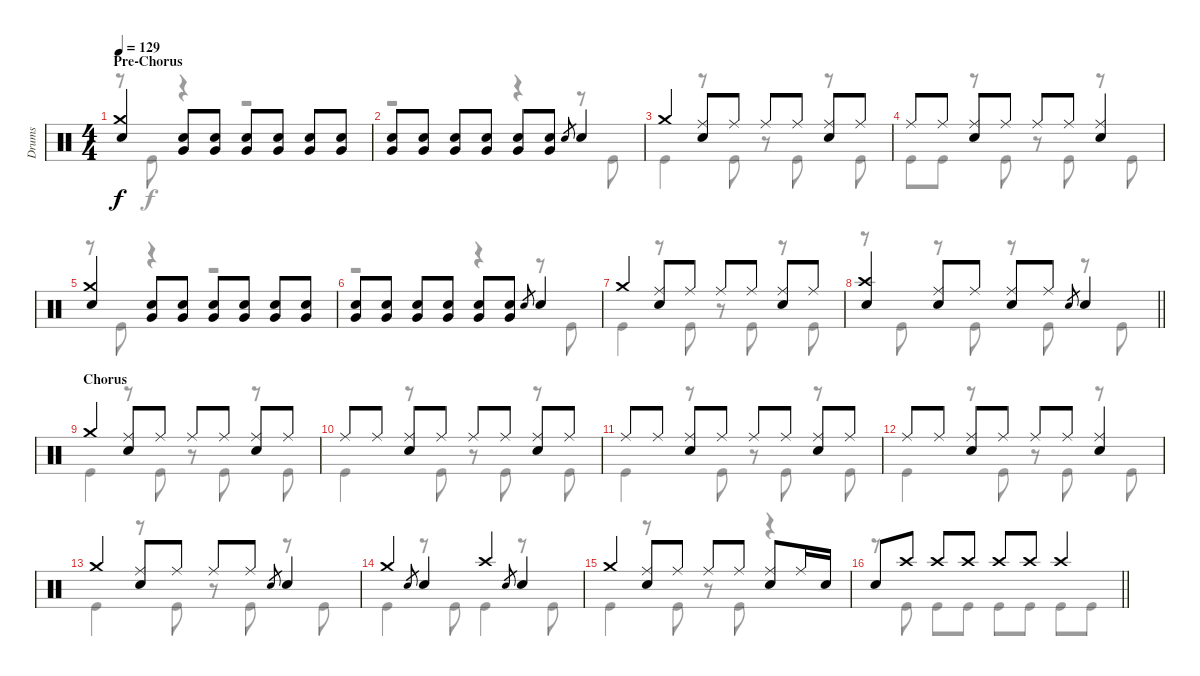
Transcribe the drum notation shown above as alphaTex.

\track ("Drums" "Drums") {instrument percussion}
\staff {score}
\articulation defaults
\voice
\ts (4 4)
\section ("" "Pre-Chorus")
\tempo 129
\clef neutral
\ks c
("Crash medium (hit)" "Electric Snare (hit)").4{dy f} ("Very Low Tom (hit)" "Electric Snare (hit)").8 ("Very Low Tom (hit)" "Electric Snare (hit)").8 ("Very Low Tom (hit)" "Electric Snare (hit)").8 ("Very Low Tom (hit)" "Electric Snare (hit)").8 ("Very Low Tom (hit)" "Electric Snare (hit)").8 ("Very Low Tom (hit)" "Electric Snare (hit)").8 |
("Very Low Tom (hit)" "Electric Snare (hit)").8 ("Very Low Tom (hit)" "Electric Snare (hit)").8 ("Very Low Tom (hit)" "Electric Snare (hit)").8 ("Very Low Tom (hit)" "Electric Snare (hit)").8 ("Very Low Tom (hit)" "Electric Snare (hit)").8 ("Very Low Tom (hit)" "Electric Snare (hit)").8 "Electric Snare (hit)".8{gr} "Electric Snare (hit)".4 |
"Crash medium (hit)".4 ("Ride (middle)" "Electric Snare (hit)").8 "Ride (middle)".8 "Ride (middle)".8 "Ride (middle)".8 ("Ride (middle)" "Electric Snare (hit)").8 "Ride (middle)".8 |
"Ride (middle)".8 "Ride (middle)".8 ("Ride (middle)" "Electric Snare (hit)").8 "Ride (middle)".8 "Ride (middle)".8 "Ride (middle)".8 ("Ride (middle)" "Electric Snare (hit)").4 |
("Crash medium (hit)" "Electric Snare (hit)").4 ("Very Low Tom (hit)" "Electric Snare (hit)").8 ("Very Low Tom (hit)" "Electric Snare (hit)").8 ("Very Low Tom (hit)" "Electric Snare (hit)").8 ("Very Low Tom (hit)" "Electric Snare (hit)").8 ("Very Low Tom (hit)" "Electric Snare (hit)").8 ("Very Low Tom (hit)" "Electric Snare (hit)").8 |
("Very Low Tom (hit)" "Electric Snare (hit)").8 ("Very Low Tom (hit)" "Electric Snare (hit)").8 ("Very Low Tom (hit)" "Electric Snare (hit)").8 ("Very Low Tom (hit)" "Electric Snare (hit)").8 ("Very Low Tom (hit)" "Electric Snare (hit)").8 ("Very Low Tom (hit)" "Electric Snare (hit)").8 "Electric Snare (hit)".8{gr} "Electric Snare (hit)".4 |
"Crash medium (hit)".4 ("Ride (middle)" "Electric Snare (hit)").8 "Ride (middle)".8 "Ride (middle)".8 "Ride (middle)".8 ("Ride (middle)" "Electric Snare (hit)").8 "Ride (middle)".8 |
\barLineRight lightlight
("Crash high (hit)" "Electric Snare (hit)").4 ("Ride (middle)" "Electric Snare (hit)").8 "Ride (middle)".8 ("Ride (middle)" "Electric Snare (hit)").8 "Ride (middle)".8 "Electric Snare (hit)".8{gr} "Electric Snare (hit)".4 |
\section ("" "Chorus")
"Crash medium (hit)".4 ("Ride (middle)" "Electric Snare (hit)").8 "Ride (middle)".8 "Ride (middle)".8 "Ride (middle)".8 ("Ride (middle)" "Electric Snare (hit)").8 "Ride (middle)".8 |
"Ride (middle)".8 "Ride (middle)".8 ("Ride (middle)" "Electric Snare (hit)").8 "Ride (middle)".8 "Ride (middle)".8 "Ride (middle)".8 ("Ride (middle)" "Electric Snare (hit)").8 "Ride (middle)".8 |
"Ride (middle)".8 "Ride (middle)".8 ("Ride (middle)" "Electric Snare (hit)").8 "Ride (middle)".8 "Ride (middle)".8 "Ride (middle)".8 ("Ride (middle)" "Electric Snare (hit)").8 "Ride (middle)".8 |
"Ride (middle)".8 "Ride (middle)".8 ("Ride (middle)" "Electric Snare (hit)").8 "Ride (middle)".8 "Ride (middle)".8 "Ride (middle)".8 ("Ride (middle)" "Electric Snare (hit)").4 |
"Crash medium (hit)".4 ("Ride (middle)" "Electric Snare (hit)").8 "Ride (middle)".8 "Ride (middle)".8 "Ride (middle)".8 "Electric Snare (hit)".8{gr} "Electric Snare (hit)".4 |
"Crash medium (hit)".4 "Electric Snare (hit)".8{gr} "Electric Snare (hit)".4 "Crash high (hit)".4 "Electric Snare (hit)".8{gr} "Electric Snare (hit)".4 |
"Crash medium (hit)".4 ("Ride (middle)" "Electric Snare (hit)").8 "Ride (middle)".8 "Ride (middle)".8 "Ride (middle)".8 ("Ride (middle)" "Electric Snare (hit)").8 "Ride (middle)".16 "Electric Snare (hit)".16 |
\barLineRight lightlight "Electric Snare (hit)".8 "Crash high (hit)".8 "Crash high (hit)".8 "Crash high (hit)".8 "Crash high (hit)".8 "Crash high (hit)".8 "Crash high (hit)".4
\voice
\clef neutral
\ottava regular
\simile none
\ks c
r.8{dy f} "Kick (hit)".8 r.4 r.2 |
r.2 r.4 r.8 "Kick (hit)".8 |
"Kick (hit)".4 r.8 "Kick (hit)".8 r.8 "Kick (hit)".8 r.8 "Kick (hit)".8 |
"Kick (hit)".8 "Kick (hit)".8 r.8 "Kick (hit)".8 r.8 "Kick (hit)".8 r.8 "Kick (hit)".8 |
r.8 "Kick (hit)".8 r.4 r.2 |
r.2 r.4 r.8 "Kick (hit)".8 |
"Kick (hit)".4 r.8 "Kick (hit)".8 r.8 "Kick (hit)".8 r.8 "Kick (hit)".8 |
\barLineRight lightlight
r.8 "Kick (hit)".8 r.8 "Kick (hit)".8 r.8 "Kick (hit)".8 r.8 "Kick (hit)".8 |
"Kick (hit)".4 r.8 "Kick (hit)".8 r.8 "Kick (hit)".8 r.8 "Kick (hit)".8 |
"Kick (hit)".4 r.8 "Kick (hit)".8 r.8 "Kick (hit)".8 r.8 "Kick (hit)".8 |
"Kick (hit)".4 r.8 "Kick (hit)".8 r.8 "Kick (hit)".8 r.8 "Kick (hit)".8 |
"Kick (hit)".4 r.8 "Kick (hit)".8 r.8 "Kick (hit)".8 r.8 "Kick (hit)".8 |
"Kick (hit)".4 r.8 "Kick (hit)".8 r.8 "Kick (hit)".8 r.8 "Kick (hit)".8 |
"Kick (hit)".4 r.8 "Kick (hit)".8 "Kick (hit)".4 r.8 "Kick (hit)".8 |
"Kick (hit)".4 r.8 "Kick (hit)".8 r.8 "Kick (hit)".8 r.4 |
\barLineRight lightlight
r.8 "Kick (hit)".8 "Kick (hit)".8 "Kick (hit)".8 "Kick (hit)".8 "Kick (hit)".8 "Kick (hit)".8 "Kick (hit)".8
